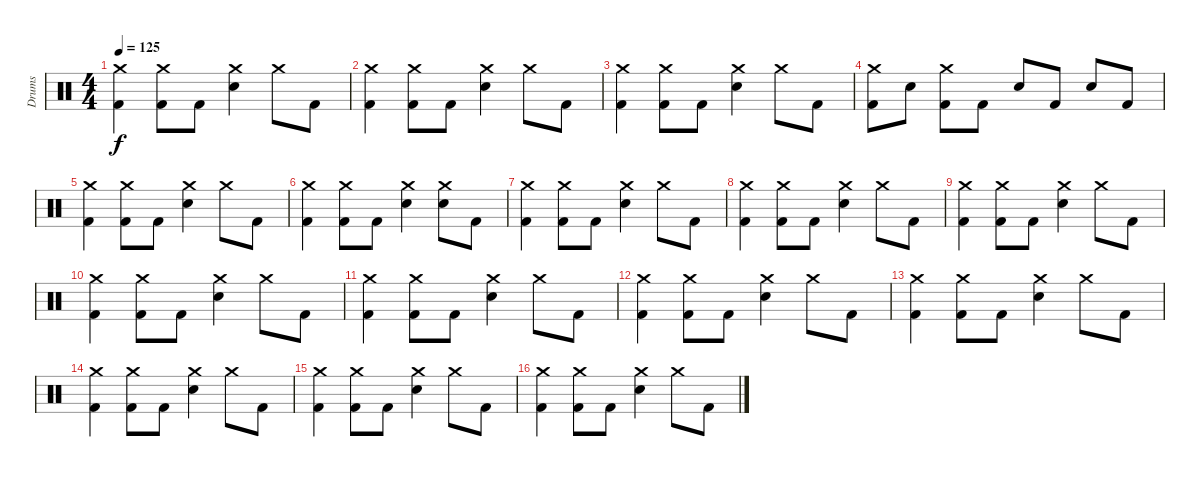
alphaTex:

\track ("Drums" "Drums") {instrument percussion}
\staff {score}
\articulation defaults
\ts (4 4)
\tempo 125
\clef neutral
\ks c
("Crash medium (hit)" "Kick (hit) 2").4{dy f} ("Crash medium (hit)" "Kick (hit) 2").8 "Kick (hit) 2".8 ("Crash medium (hit)" "Snare (hit) 2").4 "Crash medium (hit)".8 "Kick (hit) 2".8 |
("Crash medium (hit)" "Kick (hit) 2").4 ("Crash medium (hit)" "Kick (hit) 2").8 "Kick (hit) 2".8 ("Crash medium (hit)" "Snare (hit) 2").4 "Crash medium (hit)".8 "Kick (hit) 2".8 |
("Crash medium (hit)" "Kick (hit) 2").4 ("Crash medium (hit)" "Kick (hit) 2").8 "Kick (hit) 2".8 ("Crash medium (hit)" "Snare (hit) 2").4 "Crash medium (hit)".8 "Kick (hit) 2".8 |
("Crash medium (hit)" "Kick (hit) 2").8 "Snare (hit) 2".8 ("Crash medium (hit)" "Kick (hit) 2").8 "Kick (hit) 2".8 "Snare (hit) 2".8 "Kick (hit) 2".8 "Snare (hit) 2".8 "Kick (hit) 2".8 |
("Crash medium (hit)" "Kick (hit) 2").4 ("Crash medium (hit)" "Kick (hit) 2").8 "Kick (hit) 2".8 ("Crash medium (hit)" "Snare (hit) 2").4 "Crash medium (hit)".8 "Kick (hit) 2".8 |
("Crash medium (hit)" "Kick (hit) 2").4 ("Crash medium (hit)" "Kick (hit) 2").8 "Kick (hit) 2".8 ("Crash medium (hit)" "Snare (hit) 2").4 ("Crash medium (hit)" "Snare (hit) 2").8 "Kick (hit) 2".8 |
("Crash medium (hit)" "Kick (hit) 2").4 ("Crash medium (hit)" "Kick (hit) 2").8 "Kick (hit) 2".8 ("Crash medium (hit)" "Snare (hit) 2").4 "Crash medium (hit)".8 "Kick (hit) 2".8 |
("Crash medium (hit)" "Kick (hit) 2").4 ("Crash medium (hit)" "Kick (hit) 2").8 "Kick (hit) 2".8 ("Crash medium (hit)" "Snare (hit) 2").4 "Crash medium (hit)".8 "Kick (hit) 2".8 |
("Crash medium (hit)" "Kick (hit) 2").4 ("Crash medium (hit)" "Kick (hit) 2").8 "Kick (hit) 2".8 ("Crash medium (hit)" "Snare (hit) 2").4 "Crash medium (hit)".8 "Kick (hit) 2".8 |
("Crash medium (hit)" "Kick (hit) 2").4 ("Crash medium (hit)" "Kick (hit) 2").8 "Kick (hit) 2".8 ("Crash medium (hit)" "Snare (hit) 2").4 "Crash medium (hit)".8 "Kick (hit) 2".8 |
("Crash medium (hit)" "Kick (hit) 2").4 ("Crash medium (hit)" "Kick (hit) 2").8 "Kick (hit) 2".8 ("Crash medium (hit)" "Snare (hit) 2").4 "Crash medium (hit)".8 "Kick (hit) 2".8 |
("Crash medium (hit)" "Kick (hit) 2").4 ("Crash medium (hit)" "Kick (hit) 2").8 "Kick (hit) 2".8 ("Crash medium (hit)" "Snare (hit) 2").4 "Crash medium (hit)".8 "Kick (hit) 2".8 |
("Crash medium (hit)" "Kick (hit) 2").4 ("Crash medium (hit)" "Kick (hit) 2").8 "Kick (hit) 2".8 ("Crash medium (hit)" "Snare (hit) 2").4 "Crash medium (hit)".8 "Kick (hit) 2".8 |
("Crash medium (hit)" "Kick (hit) 2").4 ("Crash medium (hit)" "Kick (hit) 2").8 "Kick (hit) 2".8 ("Crash medium (hit)" "Snare (hit) 2").4 "Crash medium (hit)".8 "Kick (hit) 2".8 |
("Crash medium (hit)" "Kick (hit) 2").4 ("Crash medium (hit)" "Kick (hit) 2").8 "Kick (hit) 2".8 ("Crash medium (hit)" "Snare (hit) 2").4 "Crash medium (hit)".8 "Kick (hit) 2".8 |
("Crash medium (hit)" "Kick (hit) 2").4 ("Crash medium (hit)" "Kick (hit) 2").8 "Kick (hit) 2".8 ("Crash medium (hit)" "Snare (hit) 2").4 "Crash medium (hit)".8 "Kick (hit) 2".8
